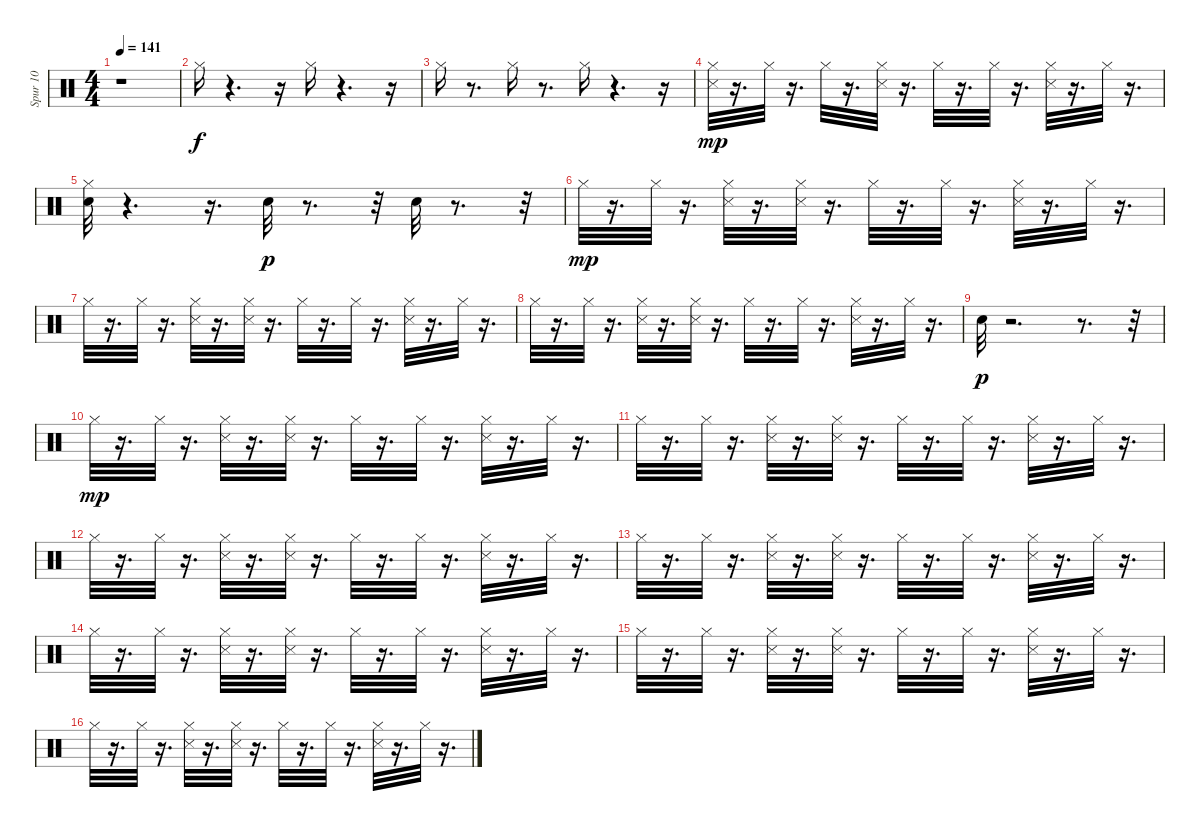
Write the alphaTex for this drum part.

\track ("Spur 10" "Spur 10") {instrument percussion}
\staff {score}
\articulation defaults
\ts (4 4)
\tempo 141
\clef neutral
\ks c
r.1{dy f} |
"Hi-Hat (closed)".16 r.4{d} r.16 "Hi-Hat (closed)".16 r.4{d} r.16 |
"Hi-Hat (closed)".16 r.8{d} "Hi-Hat (closed)".16 r.8{d} "Hi-Hat (closed)".16 r.4{d} r.16 |
("Hi-Hat (closed)" "Snare (side stick) 3").32{dy mp} r.16{d} "Hi-Hat (closed)".32 r.16{d} "Hi-Hat (closed)".32 r.16{d} ("Snare (side stick) 3" "Hi-Hat (closed)").32 r.16{d} "Hi-Hat (closed)".32 r.16{d} "Hi-Hat (closed)".32 r.16{d} ("Snare (side stick) 3" "Hi-Hat (closed)").32 r.16{d} "Hi-Hat (closed)".32 r.16{d} |
("Snare (hit) 2" "Hi-Hat (closed)").32 r.4{d} r.16{d} "Snare (hit) 2".32{dy p} r.8{d} r.32 "Snare (hit) 2".32 r.8{d} r.32 |
"Hi-Hat (closed)".32{dy mp} r.16{d} "Hi-Hat (closed)".32 r.16{d} ("Snare (side stick) 3" "Hi-Hat (closed)").32 r.16{d} ("Snare (side stick) 3" "Hi-Hat (closed)").32 r.16{d} "Hi-Hat (closed)".32 r.16{d} "Hi-Hat (closed)".32 r.16{d} ("Snare (side stick) 3" "Hi-Hat (closed)").32 r.16{d} "Hi-Hat (closed)".32 r.16{d} |
"Hi-Hat (closed)".32 r.16{d} "Hi-Hat (closed)".32 r.16{d} ("Snare (side stick) 3" "Hi-Hat (closed)").32 r.16{d} ("Snare (side stick) 3" "Hi-Hat (closed)").32 r.16{d} "Hi-Hat (closed)".32 r.16{d} "Hi-Hat (closed)".32 r.16{d} ("Snare (side stick) 3" "Hi-Hat (closed)").32 r.16{d} "Hi-Hat (closed)".32 r.16{d} |
"Hi-Hat (closed)".32 r.16{d} "Hi-Hat (closed)".32 r.16{d} ("Snare (side stick) 3" "Hi-Hat (closed)").32 r.16{d} ("Snare (side stick) 3" "Hi-Hat (closed)").32 r.16{d} "Hi-Hat (closed)".32 r.16{d} "Hi-Hat (closed)".32 r.16{d} ("Snare (side stick) 3" "Hi-Hat (closed)").32 r.16{d} "Hi-Hat (closed)".32 r.16{d} |
"Snare (hit) 2".32{dy p} r.2{d} r.8{d} r.32 |
"Hi-Hat (closed)".32{dy mp} r.16{d} "Hi-Hat (closed)".32 r.16{d} ("Snare (side stick) 3" "Hi-Hat (closed)").32 r.16{d} ("Snare (side stick) 3" "Hi-Hat (closed)").32 r.16{d} "Hi-Hat (closed)".32 r.16{d} "Hi-Hat (closed)".32 r.16{d} ("Snare (side stick) 3" "Hi-Hat (closed)").32 r.16{d} "Hi-Hat (closed)".32 r.16{d} |
"Hi-Hat (closed)".32 r.16{d} "Hi-Hat (closed)".32 r.16{d} ("Snare (side stick) 3" "Hi-Hat (closed)").32 r.16{d} ("Snare (side stick) 3" "Hi-Hat (closed)").32 r.16{d} "Hi-Hat (closed)".32 r.16{d} "Hi-Hat (closed)".32 r.16{d} ("Snare (side stick) 3" "Hi-Hat (closed)").32 r.16{d} "Hi-Hat (closed)".32 r.16{d} |
"Hi-Hat (closed)".32 r.16{d} "Hi-Hat (closed)".32 r.16{d} ("Snare (side stick) 3" "Hi-Hat (closed)").32 r.16{d} ("Snare (side stick) 3" "Hi-Hat (closed)").32 r.16{d} "Hi-Hat (closed)".32 r.16{d} "Hi-Hat (closed)".32 r.16{d} ("Snare (side stick) 3" "Hi-Hat (closed)").32 r.16{d} "Hi-Hat (closed)".32 r.16{d} |
"Hi-Hat (closed)".32 r.16{d} "Hi-Hat (closed)".32 r.16{d} ("Snare (side stick) 3" "Hi-Hat (closed)").32 r.16{d} ("Snare (side stick) 3" "Hi-Hat (closed)").32 r.16{d} "Hi-Hat (closed)".32 r.16{d} "Hi-Hat (closed)".32 r.16{d} ("Snare (side stick) 3" "Hi-Hat (closed)").32 r.16{d} "Hi-Hat (closed)".32 r.16{d} |
"Hi-Hat (closed)".32 r.16{d} "Hi-Hat (closed)".32 r.16{d} ("Snare (side stick) 3" "Hi-Hat (closed)").32 r.16{d} ("Snare (side stick) 3" "Hi-Hat (closed)").32 r.16{d} "Hi-Hat (closed)".32 r.16{d} "Hi-Hat (closed)".32 r.16{d} ("Snare (side stick) 3" "Hi-Hat (closed)").32 r.16{d} "Hi-Hat (closed)".32 r.16{d} |
"Hi-Hat (closed)".32 r.16{d} "Hi-Hat (closed)".32 r.16{d} ("Snare (side stick) 3" "Hi-Hat (closed)").32 r.16{d} ("Snare (side stick) 3" "Hi-Hat (closed)").32 r.16{d} "Hi-Hat (closed)".32 r.16{d} "Hi-Hat (closed)".32 r.16{d} ("Snare (side stick) 3" "Hi-Hat (closed)").32 r.16{d} "Hi-Hat (closed)".32 r.16{d} |
"Hi-Hat (closed)".32 r.16{d} "Hi-Hat (closed)".32 r.16{d} ("Snare (side stick) 3" "Hi-Hat (closed)").32 r.16{d} ("Snare (side stick) 3" "Hi-Hat (closed)").32 r.16{d} "Hi-Hat (closed)".32 r.16{d} "Hi-Hat (closed)".32 r.16{d} ("Snare (side stick) 3" "Hi-Hat (closed)").32 r.16{d} "Hi-Hat (closed)".32 r.16{d}
